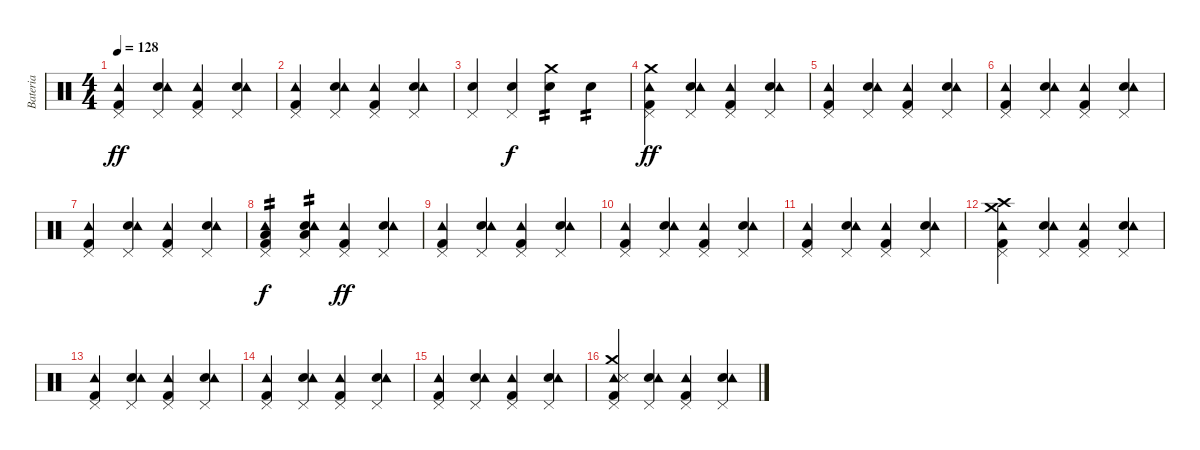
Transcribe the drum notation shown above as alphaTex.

\track ("Bateria" "Bateria") {instrument percussion}
\staff {score}
\articulation defaults
\ts (4 4)
\tempo 128
\clef neutral
\ks c
("Pedal Hi-Hat (hit)" "Kick (hit) 2" "Tambourine (hit)").4{dy ff} ("Pedal Hi-Hat (hit)" "Electric Snare (hit)" "Tambourine (hit)").4 ("Pedal Hi-Hat (hit)" "Kick (hit) 2" "Tambourine (hit)").4 ("Pedal Hi-Hat (hit)" "Electric Snare (hit)" "Tambourine (hit)").4 |
("Pedal Hi-Hat (hit)" "Kick (hit) 2" "Tambourine (hit)").4 ("Pedal Hi-Hat (hit)" "Electric Snare (hit)" "Tambourine (hit)").4 ("Pedal Hi-Hat (hit)" "Kick (hit) 2" "Tambourine (hit)").4 ("Pedal Hi-Hat (hit)" "Electric Snare (hit)" "Tambourine (hit)").4 |
("Pedal Hi-Hat (hit)" "Electric Snare (hit)").4 ("Pedal Hi-Hat (hit)" "Electric Snare (hit)").4{dy f} ("Electric Snare (hit)" "Crash medium (hit)").4{tp 2} "Electric Snare (hit)".4{tp 2} |
("Pedal Hi-Hat (hit)" "Kick (hit) 2" "Tambourine (hit)" "Crash medium (hit)").4{dy ff} ("Pedal Hi-Hat (hit)" "Electric Snare (hit)" "Tambourine (hit)").4 ("Pedal Hi-Hat (hit)" "Kick (hit) 2" "Tambourine (hit)").4 ("Pedal Hi-Hat (hit)" "Electric Snare (hit)" "Tambourine (hit)").4 |
("Pedal Hi-Hat (hit)" "Kick (hit) 2" "Tambourine (hit)").4 ("Pedal Hi-Hat (hit)" "Electric Snare (hit)" "Tambourine (hit)").4 ("Pedal Hi-Hat (hit)" "Kick (hit) 2" "Tambourine (hit)").4 ("Pedal Hi-Hat (hit)" "Electric Snare (hit)" "Tambourine (hit)").4 |
("Pedal Hi-Hat (hit)" "Kick (hit) 2" "Tambourine (hit)").4 ("Pedal Hi-Hat (hit)" "Electric Snare (hit)" "Tambourine (hit)").4 ("Pedal Hi-Hat (hit)" "Kick (hit) 2" "Tambourine (hit)").4 ("Pedal Hi-Hat (hit)" "Electric Snare (hit)" "Tambourine (hit)").4 |
("Pedal Hi-Hat (hit)" "Kick (hit) 2" "Tambourine (hit)").4 ("Pedal Hi-Hat (hit)" "Electric Snare (hit)" "Tambourine (hit)").4 ("Pedal Hi-Hat (hit)" "Kick (hit) 2" "Tambourine (hit)").4 ("Pedal Hi-Hat (hit)" "Electric Snare (hit)" "Tambourine (hit)").4 |
("Pedal Hi-Hat (hit)" "Kick (hit) 2" "Low Floor Tom (hit)" "Tambourine (hit)").4{tp 2 dy f} ("Pedal Hi-Hat (hit)" "Electric Snare (hit)" "Low Floor Tom (hit)" "Tambourine (hit)").4{tp 2} ("Pedal Hi-Hat (hit)" "Kick (hit) 2" "Tambourine (hit)").4{dy ff} ("Pedal Hi-Hat (hit)" "Electric Snare (hit)" "Tambourine (hit)").4 |
("Pedal Hi-Hat (hit)" "Kick (hit) 2" "Tambourine (hit)").4 ("Pedal Hi-Hat (hit)" "Electric Snare (hit)" "Tambourine (hit)").4 ("Pedal Hi-Hat (hit)" "Kick (hit) 2" "Tambourine (hit)").4 ("Pedal Hi-Hat (hit)" "Electric Snare (hit)" "Tambourine (hit)").4 |
("Pedal Hi-Hat (hit)" "Kick (hit) 2" "Tambourine (hit)").4 ("Pedal Hi-Hat (hit)" "Electric Snare (hit)" "Tambourine (hit)").4 ("Pedal Hi-Hat (hit)" "Kick (hit) 2" "Tambourine (hit)").4 ("Pedal Hi-Hat (hit)" "Electric Snare (hit)" "Tambourine (hit)").4 |
("Pedal Hi-Hat (hit)" "Kick (hit) 2" "Tambourine (hit)").4 ("Pedal Hi-Hat (hit)" "Electric Snare (hit)" "Tambourine (hit)").4 ("Pedal Hi-Hat (hit)" "Kick (hit) 2" "Tambourine (hit)").4 ("Pedal Hi-Hat (hit)" "Electric Snare (hit)" "Tambourine (hit)").4 |
("Pedal Hi-Hat (hit)" "Kick (hit) 2" "Tambourine (hit)" "Crash medium (hit)" "Crash high (hit)").4 ("Pedal Hi-Hat (hit)" "Electric Snare (hit)" "Tambourine (hit)").4 ("Pedal Hi-Hat (hit)" "Kick (hit) 2" "Tambourine (hit)").4 ("Pedal Hi-Hat (hit)" "Electric Snare (hit)" "Tambourine (hit)").4 |
("Pedal Hi-Hat (hit)" "Kick (hit) 2" "Tambourine (hit)").4 ("Pedal Hi-Hat (hit)" "Electric Snare (hit)" "Tambourine (hit)").4 ("Pedal Hi-Hat (hit)" "Kick (hit) 2" "Tambourine (hit)").4 ("Pedal Hi-Hat (hit)" "Electric Snare (hit)" "Tambourine (hit)").4 |
("Pedal Hi-Hat (hit)" "Kick (hit) 2" "Tambourine (hit)").4 ("Pedal Hi-Hat (hit)" "Electric Snare (hit)" "Tambourine (hit)").4 ("Pedal Hi-Hat (hit)" "Kick (hit) 2" "Tambourine (hit)").4 ("Pedal Hi-Hat (hit)" "Electric Snare (hit)" "Tambourine (hit)").4 |
("Pedal Hi-Hat (hit)" "Kick (hit) 2" "Tambourine (hit)").4 ("Pedal Hi-Hat (hit)" "Electric Snare (hit)" "Tambourine (hit)").4 ("Pedal Hi-Hat (hit)" "Kick (hit) 2" "Tambourine (hit)").4 ("Pedal Hi-Hat (hit)" "Electric Snare (hit)" "Tambourine (hit)").4 |
("Pedal Hi-Hat (hit)" "Kick (hit) 2" "Tambourine (hit)" "Crash medium (hit)" "Snare (side stick) 3").4 ("Pedal Hi-Hat (hit)" "Electric Snare (hit)" "Tambourine (hit)").4 ("Pedal Hi-Hat (hit)" "Kick (hit) 2" "Tambourine (hit)").4 ("Pedal Hi-Hat (hit)" "Electric Snare (hit)" "Tambourine (hit)").4
